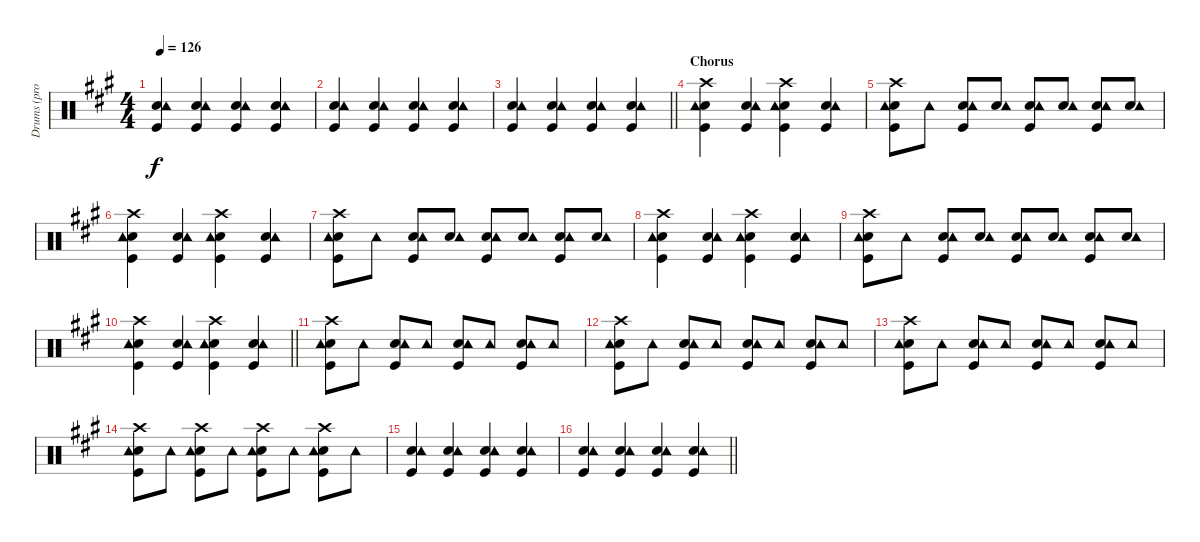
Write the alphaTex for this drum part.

\track ("Drums (prov.)" "Drums (pro") {instrument percussion}
\staff {score}
\articulation defaults
\ts (4 4)
\tempo 126
\clef neutral
\ks a
("Snare (hit) 2" "Tambourine (hit)" "Kick (hit)").4{dy f} ("Snare (hit) 2" "Tambourine (hit)" "Kick (hit)").4 ("Snare (hit) 2" "Tambourine (hit)" "Kick (hit)").4 ("Snare (hit) 2" "Tambourine (hit)" "Kick (hit)").4 |
("Snare (hit) 2" "Tambourine (hit)" "Kick (hit)").4 ("Snare (hit) 2" "Tambourine (hit)" "Kick (hit)").4 ("Snare (hit) 2" "Tambourine (hit)" "Kick (hit)").4 ("Snare (hit) 2" "Tambourine (hit)" "Kick (hit)").4 |
\barLineRight lightlight
("Snare (hit) 2" "Tambourine (hit)" "Kick (hit)").4 ("Snare (hit) 2" "Tambourine (hit)" "Kick (hit)").4 ("Snare (hit) 2" "Tambourine (hit)" "Kick (hit)").4 ("Snare (hit) 2" "Tambourine (hit)" "Kick (hit)").4 |
\section ("" "Chorus")
("Crash high (hit)" "Snare (hit) 2" "Tambourine (hit)" "Kick (hit)").4 ("Snare (hit) 2" "Tambourine (hit)" "Kick (hit)").4 ("Crash high (hit)" "Snare (hit) 2" "Tambourine (hit)" "Kick (hit)").4 ("Snare (hit) 2" "Tambourine (hit)" "Kick (hit)").4 |
("Crash high (hit)" "Snare (hit) 2" "Tambourine (hit)" "Kick (hit)").8 "Tambourine (hit)".8 ("Snare (hit) 2" "Tambourine (hit)" "Kick (hit)").8 ("Snare (hit) 2" "Tambourine (hit)").8 ("Snare (hit) 2" "Tambourine (hit)" "Kick (hit)").8 ("Snare (hit) 2" "Tambourine (hit)").8 ("Snare (hit) 2" "Tambourine (hit)" "Kick (hit)").8 ("Snare (hit) 2" "Tambourine (hit)").8 |
("Crash high (hit)" "Snare (hit) 2" "Tambourine (hit)" "Kick (hit)").4 ("Snare (hit) 2" "Tambourine (hit)" "Kick (hit)").4 ("Crash high (hit)" "Snare (hit) 2" "Tambourine (hit)" "Kick (hit)").4 ("Snare (hit) 2" "Tambourine (hit)" "Kick (hit)").4 |
("Crash high (hit)" "Snare (hit) 2" "Tambourine (hit)" "Kick (hit)").8 "Tambourine (hit)".8 ("Snare (hit) 2" "Tambourine (hit)" "Kick (hit)").8 ("Snare (hit) 2" "Tambourine (hit)").8 ("Snare (hit) 2" "Tambourine (hit)" "Kick (hit)").8 ("Snare (hit) 2" "Tambourine (hit)").8 ("Snare (hit) 2" "Tambourine (hit)" "Kick (hit)").8 ("Snare (hit) 2" "Tambourine (hit)").8 |
("Crash high (hit)" "Snare (hit) 2" "Tambourine (hit)" "Kick (hit)").4 ("Snare (hit) 2" "Tambourine (hit)" "Kick (hit)").4 ("Crash high (hit)" "Snare (hit) 2" "Tambourine (hit)" "Kick (hit)").4 ("Snare (hit) 2" "Tambourine (hit)" "Kick (hit)").4 |
("Crash high (hit)" "Snare (hit) 2" "Tambourine (hit)" "Kick (hit)").8 "Tambourine (hit)".8 ("Snare (hit) 2" "Tambourine (hit)" "Kick (hit)").8 ("Snare (hit) 2" "Tambourine (hit)").8 ("Snare (hit) 2" "Tambourine (hit)" "Kick (hit)").8 ("Snare (hit) 2" "Tambourine (hit)").8 ("Snare (hit) 2" "Tambourine (hit)" "Kick (hit)").8 ("Snare (hit) 2" "Tambourine (hit)").8 |
\barLineRight lightlight
("Crash high (hit)" "Snare (hit) 2" "Tambourine (hit)" "Kick (hit)").4 ("Snare (hit) 2" "Tambourine (hit)" "Kick (hit)").4 ("Crash high (hit)" "Snare (hit) 2" "Tambourine (hit)" "Kick (hit)").4 ("Snare (hit) 2" "Tambourine (hit)" "Kick (hit)").4 |
("Crash high (hit)" "Snare (hit) 2" "Tambourine (hit)" "Kick (hit)").8 "Tambourine (hit)".8 ("Snare (hit) 2" "Tambourine (hit)" "Kick (hit)").8 "Tambourine (hit)".8 ("Snare (hit) 2" "Tambourine (hit)" "Kick (hit)").8 "Tambourine (hit)".8 ("Snare (hit) 2" "Tambourine (hit)" "Kick (hit)").8 "Tambourine (hit)".8 |
("Crash high (hit)" "Snare (hit) 2" "Tambourine (hit)" "Kick (hit)").8 "Tambourine (hit)".8 ("Snare (hit) 2" "Tambourine (hit)" "Kick (hit)").8 "Tambourine (hit)".8 ("Snare (hit) 2" "Tambourine (hit)" "Kick (hit)").8 "Tambourine (hit)".8 ("Snare (hit) 2" "Tambourine (hit)" "Kick (hit)").8 "Tambourine (hit)".8 |
("Crash high (hit)" "Snare (hit) 2" "Tambourine (hit)" "Kick (hit)").8 "Tambourine (hit)".8 ("Snare (hit) 2" "Tambourine (hit)" "Kick (hit)").8 "Tambourine (hit)".8 ("Snare (hit) 2" "Tambourine (hit)" "Kick (hit)").8 "Tambourine (hit)".8 ("Snare (hit) 2" "Tambourine (hit)" "Kick (hit)").8 "Tambourine (hit)".8 |
("Crash high (hit)" "Snare (hit) 2" "Tambourine (hit)" "Kick (hit)").8 "Tambourine (hit)".8 ("Crash high (hit)" "Snare (hit) 2" "Tambourine (hit)" "Kick (hit)").8 "Tambourine (hit)".8 ("Crash high (hit)" "Snare (hit) 2" "Tambourine (hit)" "Kick (hit)").8 "Tambourine (hit)".8 ("Crash high (hit)" "Snare (hit) 2" "Tambourine (hit)" "Kick (hit)").8 "Tambourine (hit)".8 |
("Snare (hit) 2" "Tambourine (hit)" "Kick (hit)").4 ("Snare (hit) 2" "Tambourine (hit)" "Kick (hit)").4 ("Snare (hit) 2" "Tambourine (hit)" "Kick (hit)").4 ("Snare (hit) 2" "Tambourine (hit)" "Kick (hit)").4 |
\barLineRight lightlight
("Snare (hit) 2" "Tambourine (hit)" "Kick (hit)").4 ("Snare (hit) 2" "Tambourine (hit)" "Kick (hit)").4 ("Snare (hit) 2" "Tambourine (hit)" "Kick (hit)").4 ("Snare (hit) 2" "Tambourine (hit)" "Kick (hit)").4
